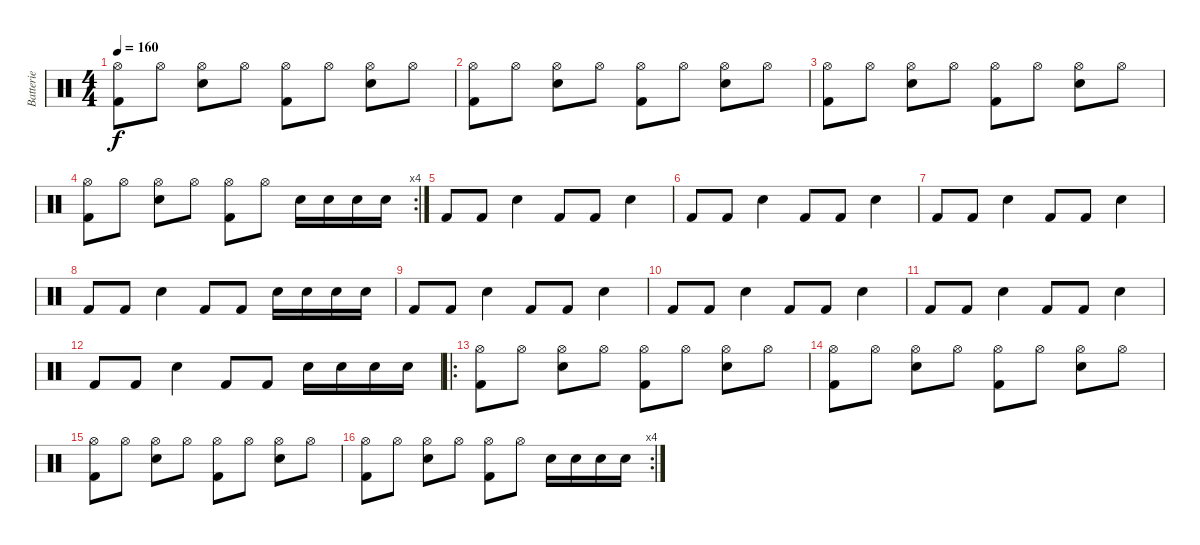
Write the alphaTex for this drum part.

\track ("Batterie" "Batterie") {instrument percussion}
\staff {score}
\articulation defaults
\ts (4 4)
\tempo 160
\clef neutral
\ks c
("Kick (hit) 2" "Hi-Hat (open)").8{dy f} "Hi-Hat (open)".8 ("Electric Snare (hit)" "Hi-Hat (open)").8 "Hi-Hat (open)".8 ("Kick (hit) 2" "Hi-Hat (open)").8 "Hi-Hat (open)".8 ("Electric Snare (hit)" "Hi-Hat (open)").8 "Hi-Hat (open)".8 |
("Kick (hit) 2" "Hi-Hat (open)").8 "Hi-Hat (open)".8 ("Electric Snare (hit)" "Hi-Hat (open)").8 "Hi-Hat (open)".8 ("Kick (hit) 2" "Hi-Hat (open)").8 "Hi-Hat (open)".8 ("Electric Snare (hit)" "Hi-Hat (open)").8 "Hi-Hat (open)".8 |
("Kick (hit) 2" "Hi-Hat (open)").8 "Hi-Hat (open)".8 ("Electric Snare (hit)" "Hi-Hat (open)").8 "Hi-Hat (open)".8 ("Kick (hit) 2" "Hi-Hat (open)").8 "Hi-Hat (open)".8 ("Electric Snare (hit)" "Hi-Hat (open)").8 "Hi-Hat (open)".8 |
\rc 4
("Kick (hit) 2" "Hi-Hat (open)").8 "Hi-Hat (open)".8 ("Electric Snare (hit)" "Hi-Hat (open)").8 "Hi-Hat (open)".8 ("Kick (hit) 2" "Hi-Hat (open)").8 "Hi-Hat (open)".8 "Electric Snare (hit)".16 "Electric Snare (hit)".16 "Electric Snare (hit)".16 "Electric Snare (hit)".16 |
"Kick (hit) 2".8 "Kick (hit) 2".8 "Electric Snare (hit)".4 "Kick (hit) 2".8 "Kick (hit) 2".8 "Electric Snare (hit)".4 |
"Kick (hit) 2".8 "Kick (hit) 2".8 "Electric Snare (hit)".4 "Kick (hit) 2".8 "Kick (hit) 2".8 "Electric Snare (hit)".4 |
"Kick (hit) 2".8 "Kick (hit) 2".8 "Electric Snare (hit)".4 "Kick (hit) 2".8 "Kick (hit) 2".8 "Electric Snare (hit)".4 |
"Kick (hit) 2".8 "Kick (hit) 2".8 "Electric Snare (hit)".4 "Kick (hit) 2".8 "Kick (hit) 2".8 "Electric Snare (hit)".16 "Electric Snare (hit)".16 "Electric Snare (hit)".16 "Electric Snare (hit)".16 |
"Kick (hit) 2".8 "Kick (hit) 2".8 "Electric Snare (hit)".4 "Kick (hit) 2".8 "Kick (hit) 2".8 "Electric Snare (hit)".4 |
"Kick (hit) 2".8 "Kick (hit) 2".8 "Electric Snare (hit)".4 "Kick (hit) 2".8 "Kick (hit) 2".8 "Electric Snare (hit)".4 |
"Kick (hit) 2".8 "Kick (hit) 2".8 "Electric Snare (hit)".4 "Kick (hit) 2".8 "Kick (hit) 2".8 "Electric Snare (hit)".4 |
"Kick (hit) 2".8 "Kick (hit) 2".8 "Electric Snare (hit)".4 "Kick (hit) 2".8 "Kick (hit) 2".8 "Electric Snare (hit)".16 "Electric Snare (hit)".16 "Electric Snare (hit)".16 "Electric Snare (hit)".16 |
\ro
("Kick (hit) 2" "Hi-Hat (open)").8 "Hi-Hat (open)".8 ("Electric Snare (hit)" "Hi-Hat (open)").8 "Hi-Hat (open)".8 ("Kick (hit) 2" "Hi-Hat (open)").8 "Hi-Hat (open)".8 ("Electric Snare (hit)" "Hi-Hat (open)").8 "Hi-Hat (open)".8 |
("Kick (hit) 2" "Hi-Hat (open)").8 "Hi-Hat (open)".8 ("Electric Snare (hit)" "Hi-Hat (open)").8 "Hi-Hat (open)".8 ("Kick (hit) 2" "Hi-Hat (open)").8 "Hi-Hat (open)".8 ("Electric Snare (hit)" "Hi-Hat (open)").8 "Hi-Hat (open)".8 |
("Kick (hit) 2" "Hi-Hat (open)").8 "Hi-Hat (open)".8 ("Electric Snare (hit)" "Hi-Hat (open)").8 "Hi-Hat (open)".8 ("Kick (hit) 2" "Hi-Hat (open)").8 "Hi-Hat (open)".8 ("Electric Snare (hit)" "Hi-Hat (open)").8 "Hi-Hat (open)".8 |
\rc 4
("Kick (hit) 2" "Hi-Hat (open)").8 "Hi-Hat (open)".8 ("Electric Snare (hit)" "Hi-Hat (open)").8 "Hi-Hat (open)".8 ("Kick (hit) 2" "Hi-Hat (open)").8 "Hi-Hat (open)".8 "Electric Snare (hit)".16 "Electric Snare (hit)".16 "Electric Snare (hit)".16 "Electric Snare (hit)".16
